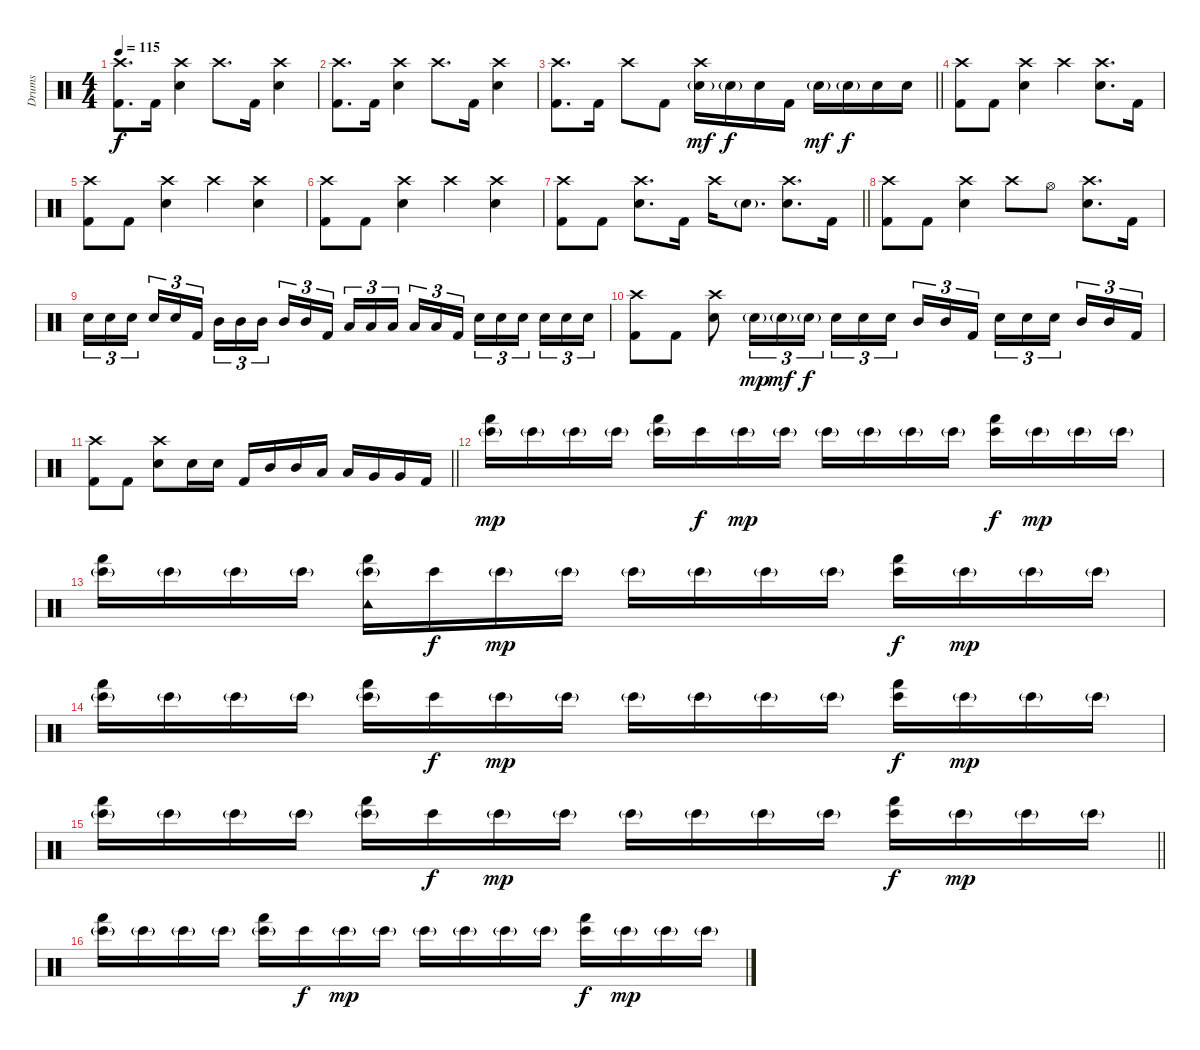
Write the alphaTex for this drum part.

\track ("Drums" "Drums") {instrument percussion}
\staff {score}
\articulation defaults
\ts (4 4)
\tempo 115
\clef neutral
\ks c
("Crash high (hit)" "Kick (hit) 2").8{d dy f} "Kick (hit) 2".16 ("Crash high (hit)" "Electric Snare (hit)").4 "Crash high (hit)".8{d} "Kick (hit) 2".16 ("Crash high (hit)" "Electric Snare (hit)").4 |
("Crash high (hit)" "Kick (hit) 2").8{d} "Kick (hit) 2".16 ("Crash high (hit)" "Electric Snare (hit)").4 "Crash high (hit)".8{d} "Kick (hit) 2".16 ("Crash high (hit)" "Electric Snare (hit)").4 |
\barLineRight lightlight
("Crash high (hit)" "Kick (hit) 2").8{d} "Kick (hit) 2".16 "Crash high (hit)".8 "Kick (hit) 2".8 ("Crash high (hit)" "Electric Snare (hit)"{g}).16{dy mf} "Electric Snare (hit)"{g}.16{dy f} "Electric Snare (hit)".16 "Kick (hit) 2".16 "Electric Snare (hit)"{g}.16{dy mf} "Electric Snare (hit)"{g}.16{dy f} "Electric Snare (hit)".16 "Electric Snare (hit)".16 |
("Crash high (hit)" "Kick (hit) 2").8 "Kick (hit) 2".8 ("Crash high (hit)" "Electric Snare (hit)").4 "Crash high (hit)".4 ("Crash high (hit)" "Electric Snare (hit)").8{d} "Kick (hit) 2".16 |
("Crash high (hit)" "Kick (hit) 2").8 "Kick (hit) 2".8 ("Crash high (hit)" "Electric Snare (hit)").4 "Crash high (hit)".4 ("Crash high (hit)" "Electric Snare (hit)").4 |
("Crash high (hit)" "Kick (hit) 2").8 "Kick (hit) 2".8 ("Crash high (hit)" "Electric Snare (hit)").4 "Crash high (hit)".4 ("Crash high (hit)" "Electric Snare (hit)").4 |
\barLineRight lightlight
("Crash high (hit)" "Kick (hit) 2").8 "Kick (hit) 2".8 ("Crash high (hit)" "Electric Snare (hit)").8{d} "Kick (hit) 2".16 "Crash high (hit)".16 "Electric Snare (hit)"{g}.8{d} ("Crash high (hit)" "Electric Snare (hit)").8{d} "Kick (hit) 2".16 |
("Crash high (hit)" "Kick (hit) 2").8 "Kick (hit) 2".8 ("Crash high (hit)" "Electric Snare (hit)").4 "Crash high (hit)".8 "Hi-Hat (open)".8 ("Crash high (hit)" "Electric Snare (hit)").8{d} "Kick (hit) 2".16 |
"Electric Snare (hit)".16{tu (3 2)} "Electric Snare (hit)".16{tu (3 2)} "Electric Snare (hit)".16{tu (3 2) beam splitsecondary} "Electric Snare (hit)".16{tu (3 2)} "Electric Snare (hit)".16{tu (3 2)} "Kick (hit) 2".16{tu (3 2)} "Mid Tom (hit)".16{tu (3 2)} "Mid Tom (hit)".16{tu (3 2)} "Mid Tom (hit)".16{tu (3 2) beam splitsecondary} "Mid Tom (hit)".16{tu (3 2)} "Mid Tom (hit)".16{tu (3 2)} "Kick (hit) 2".16{tu (3 2)} "Low Tom (hit)".16{tu (3 2)} "Low Tom (hit)".16{tu (3 2)} "Low Tom (hit)".16{tu (3 2) beam splitsecondary} "Low Tom (hit)".16{tu (3 2)} "Low Tom (hit)".16{tu (3 2)} "Kick (hit) 2".16{tu (3 2)} "Electric Snare (hit)".16{tu (3 2)} "Electric Snare (hit)".16{tu (3 2)} "Electric Snare (hit)".16{tu (3 2) beam splitsecondary} "Electric Snare (hit)".16{tu (3 2)} "Electric Snare (hit)".16{tu (3 2)} "Electric Snare (hit)".16{tu (3 2)} |
("Crash high (hit)" "Kick (hit) 2").8 "Kick (hit) 2".8 ("Crash high (hit)" "Electric Snare (hit)").8 "Electric Snare (hit)"{g}.16{tu (3 2) dy mp} "Electric Snare (hit)"{g}.16{tu (3 2) dy mf} "Electric Snare (hit)"{g}.16{tu (3 2) dy f} "Electric Snare (hit)".16{tu (3 2)} "Electric Snare (hit)".16{tu (3 2)} "Electric Snare (hit)".16{tu (3 2) beam splitsecondary} "Mid Tom (hit)".16{tu (3 2)} "Mid Tom (hit)".16{tu (3 2)} "Kick (hit) 2".16{tu (3 2)} "Electric Snare (hit)".16{tu (3 2)} "Electric Snare (hit)".16{tu (3 2)} "Electric Snare (hit)".16{tu (3 2) beam splitsecondary} "Mid Tom (hit)".16{tu (3 2)} "Mid Tom (hit)".16{tu (3 2)} "Kick (hit) 2".16{tu (3 2)} |
\barLineRight lightlight
("Crash high (hit)" "Kick (hit) 2").8 "Kick (hit) 2".8 ("Crash high (hit)" "Electric Snare (hit)").8 "Electric Snare (hit)".16 "Electric Snare (hit)".16 "Kick (hit) 2".16 "Mid Tom (hit)".16 "Mid Tom (hit)".16 "Low Tom (hit)".16 "Low Tom (hit)".16 "Very Low Tom (hit)".16 "Very Low Tom (hit)".16 "Kick (hit) 2".16 |
("Hand (hit)" "Bongo High (hit)"{g}).16{dy mp} "Bongo High (hit)"{g}.16 "Bongo High (hit)"{g}.16 "Bongo High (hit)"{g}.16 ("Hand (hit)" "Bongo High (hit)"{g}).16 "Bongo High (hit)".16{dy f} "Bongo High (hit)"{g}.16{dy mp} "Bongo High (hit)"{g}.16 "Bongo High (hit)"{g}.16 "Bongo High (hit)"{g}.16 "Bongo High (hit)"{g}.16 "Bongo High (hit)"{g}.16 ("Hand (hit)" "Bongo High (hit)").16{dy f} "Bongo High (hit)"{g}.16{dy mp} "Bongo High (hit)"{g}.16 "Bongo High (hit)"{g}.16 |
("Hand (hit)" "Bongo High (hit)"{g}).16 "Bongo High (hit)"{g}.16 "Bongo High (hit)"{g}.16 "Bongo High (hit)"{g}.16 ("Tambourine (hit)" "Hand (hit)" "Bongo High (hit)"{g}).16 "Bongo High (hit)".16{dy f} "Bongo High (hit)"{g}.16{dy mp} "Bongo High (hit)"{g}.16 "Bongo High (hit)"{g}.16 "Bongo High (hit)"{g}.16 "Bongo High (hit)"{g}.16 "Bongo High (hit)"{g}.16 ("Hand (hit)" "Bongo High (hit)").16{dy f} "Bongo High (hit)"{g}.16{dy mp} "Bongo High (hit)"{g}.16 "Bongo High (hit)"{g}.16 |
("Hand (hit)" "Bongo High (hit)"{g}).16 "Bongo High (hit)"{g}.16 "Bongo High (hit)"{g}.16 "Bongo High (hit)"{g}.16 ("Hand (hit)" "Bongo High (hit)"{g}).16 "Bongo High (hit)".16{dy f} "Bongo High (hit)"{g}.16{dy mp} "Bongo High (hit)"{g}.16 "Bongo High (hit)"{g}.16 "Bongo High (hit)"{g}.16 "Bongo High (hit)"{g}.16 "Bongo High (hit)"{g}.16 ("Hand (hit)" "Bongo High (hit)").16{dy f} "Bongo High (hit)"{g}.16{dy mp} "Bongo High (hit)"{g}.16 "Bongo High (hit)"{g}.16 |
\barLineRight lightlight
("Hand (hit)" "Bongo High (hit)"{g}).16 "Bongo High (hit)"{g}.16 "Bongo High (hit)"{g}.16 "Bongo High (hit)"{g}.16 ("Hand (hit)" "Bongo High (hit)"{g}).16 "Bongo High (hit)".16{dy f} "Bongo High (hit)"{g}.16{dy mp} "Bongo High (hit)"{g}.16 "Bongo High (hit)"{g}.16 "Bongo High (hit)"{g}.16 "Bongo High (hit)"{g}.16 "Bongo High (hit)"{g}.16 ("Hand (hit)" "Bongo High (hit)").16{dy f} "Bongo High (hit)"{g}.16{dy mp} "Bongo High (hit)"{g}.16 "Bongo High (hit)"{g}.16 |
("Hand (hit)" "Bongo High (hit)"{g}).16 "Bongo High (hit)"{g}.16 "Bongo High (hit)"{g}.16 "Bongo High (hit)"{g}.16 ("Hand (hit)" "Bongo High (hit)"{g}).16 "Bongo High (hit)".16{dy f} "Bongo High (hit)"{g}.16{dy mp} "Bongo High (hit)"{g}.16 "Bongo High (hit)"{g}.16 "Bongo High (hit)"{g}.16 "Bongo High (hit)"{g}.16 "Bongo High (hit)"{g}.16 ("Hand (hit)" "Bongo High (hit)").16{dy f} "Bongo High (hit)"{g}.16{dy mp} "Bongo High (hit)"{g}.16 "Bongo High (hit)"{g}.16
